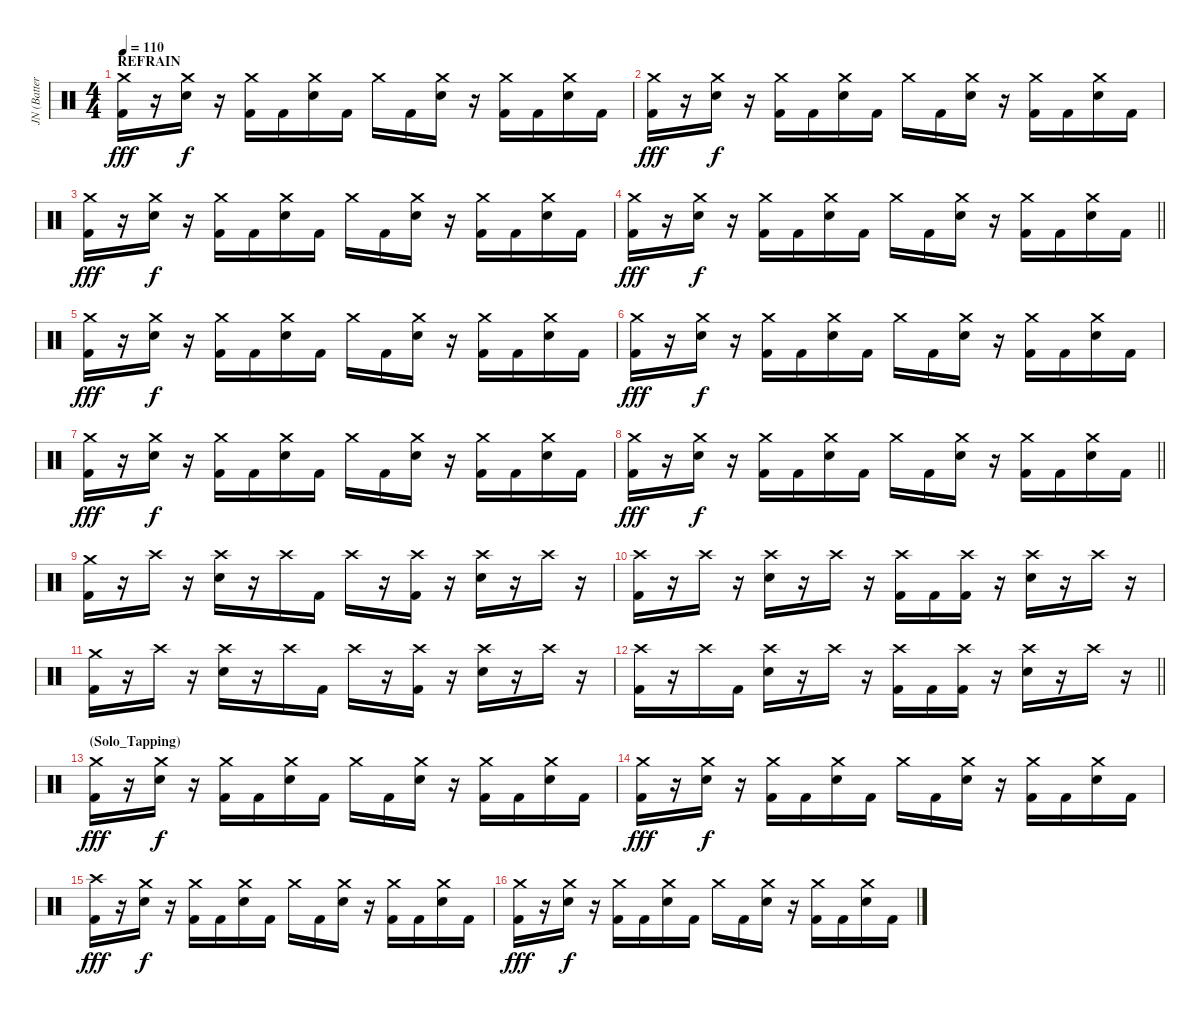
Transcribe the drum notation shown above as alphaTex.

\track ("JN (Batterie)" "JN (Batter") {instrument percussion}
\staff {score}
\articulation defaults
\ts (4 4)
\section ("" "REFRAIN")
\tempo 110
\clef neutral
\ks c
("Crash medium (hit)" "Kick (hit) 2").16{dy fff} r.16 ("Crash medium (hit)" "Electric Snare (hit)").16{dy f} r.16 ("Crash medium (hit)" "Kick (hit) 2").16 "Kick (hit) 2".16 ("Crash medium (hit)" "Electric Snare (hit)").16 "Kick (hit) 2".16 "Crash medium (hit)".16 "Kick (hit) 2".16 ("Crash medium (hit)" "Electric Snare (hit)").16 r.16 ("Crash medium (hit)" "Kick (hit) 2").16 "Kick (hit) 2".16 ("Crash medium (hit)" "Electric Snare (hit)").16 "Kick (hit) 2".16 |
("Crash medium (hit)" "Kick (hit) 2").16{dy fff} r.16 ("Crash medium (hit)" "Electric Snare (hit)").16{dy f} r.16 ("Crash medium (hit)" "Kick (hit) 2").16 "Kick (hit) 2".16 ("Crash medium (hit)" "Electric Snare (hit)").16 "Kick (hit) 2".16 "Crash medium (hit)".16 "Kick (hit) 2".16 ("Crash medium (hit)" "Electric Snare (hit)").16 r.16 ("Crash medium (hit)" "Kick (hit) 2").16 "Kick (hit) 2".16 ("Crash medium (hit)" "Electric Snare (hit)").16 "Kick (hit) 2".16 |
("Crash medium (hit)" "Kick (hit) 2").16{dy fff} r.16 ("Crash medium (hit)" "Electric Snare (hit)").16{dy f} r.16 ("Crash medium (hit)" "Kick (hit) 2").16 "Kick (hit) 2".16 ("Crash medium (hit)" "Electric Snare (hit)").16 "Kick (hit) 2".16 "Crash medium (hit)".16 "Kick (hit) 2".16 ("Crash medium (hit)" "Electric Snare (hit)").16 r.16 ("Crash medium (hit)" "Kick (hit) 2").16 "Kick (hit) 2".16 ("Crash medium (hit)" "Electric Snare (hit)").16 "Kick (hit) 2".16 |
\barLineRight lightlight
("Crash medium (hit)" "Kick (hit) 2").16{dy fff} r.16 ("Crash medium (hit)" "Electric Snare (hit)").16{dy f} r.16 ("Crash medium (hit)" "Kick (hit) 2").16 "Kick (hit) 2".16 ("Crash medium (hit)" "Electric Snare (hit)").16 "Kick (hit) 2".16 "Crash medium (hit)".16 "Kick (hit) 2".16 ("Crash medium (hit)" "Electric Snare (hit)").16 r.16 ("Crash medium (hit)" "Kick (hit) 2").16 "Kick (hit) 2".16 ("Crash medium (hit)" "Electric Snare (hit)").16 "Kick (hit) 2".16 |
("Crash medium (hit)" "Kick (hit) 2").16{dy fff} r.16 ("Crash medium (hit)" "Electric Snare (hit)").16{dy f} r.16 ("Crash medium (hit)" "Kick (hit) 2").16 "Kick (hit) 2".16 ("Crash medium (hit)" "Electric Snare (hit)").16 "Kick (hit) 2".16 "Crash medium (hit)".16 "Kick (hit) 2".16 ("Crash medium (hit)" "Electric Snare (hit)").16 r.16 ("Crash medium (hit)" "Kick (hit) 2").16 "Kick (hit) 2".16 ("Crash medium (hit)" "Electric Snare (hit)").16 "Kick (hit) 2".16 |
("Crash medium (hit)" "Kick (hit) 2").16{dy fff} r.16 ("Crash medium (hit)" "Electric Snare (hit)").16{dy f} r.16 ("Crash medium (hit)" "Kick (hit) 2").16 "Kick (hit) 2".16 ("Crash medium (hit)" "Electric Snare (hit)").16 "Kick (hit) 2".16 "Crash medium (hit)".16 "Kick (hit) 2".16 ("Crash medium (hit)" "Electric Snare (hit)").16 r.16 ("Crash medium (hit)" "Kick (hit) 2").16 "Kick (hit) 2".16 ("Crash medium (hit)" "Electric Snare (hit)").16 "Kick (hit) 2".16 |
("Crash medium (hit)" "Kick (hit) 2").16{dy fff} r.16 ("Crash medium (hit)" "Electric Snare (hit)").16{dy f} r.16 ("Crash medium (hit)" "Kick (hit) 2").16 "Kick (hit) 2".16 ("Crash medium (hit)" "Electric Snare (hit)").16 "Kick (hit) 2".16 "Crash medium (hit)".16 "Kick (hit) 2".16 ("Crash medium (hit)" "Electric Snare (hit)").16 r.16 ("Crash medium (hit)" "Kick (hit) 2").16 "Kick (hit) 2".16 ("Crash medium (hit)" "Electric Snare (hit)").16 "Kick (hit) 2".16 |
\barLineRight lightlight
("Crash medium (hit)" "Kick (hit) 2").16{dy fff} r.16 ("Crash medium (hit)" "Electric Snare (hit)").16{dy f} r.16 ("Crash medium (hit)" "Kick (hit) 2").16 "Kick (hit) 2".16 ("Crash medium (hit)" "Electric Snare (hit)").16 "Kick (hit) 2".16 "Crash medium (hit)".16 "Kick (hit) 2".16 ("Crash medium (hit)" "Electric Snare (hit)").16 r.16 ("Crash medium (hit)" "Kick (hit) 2").16 "Kick (hit) 2".16 ("Crash medium (hit)" "Electric Snare (hit)").16 "Kick (hit) 2".16 |
("Crash medium (hit)" "Kick (hit) 2").16 r.16 "Crash high (hit)".16 r.16 ("Crash high (hit)" "Electric Snare (hit)").16 r.16 "Crash high (hit)".16 "Kick (hit) 2".16 "Crash high (hit)".16 r.16 ("Crash high (hit)" "Kick (hit) 2").16 r.16 ("Crash high (hit)" "Electric Snare (hit)").16 r.16 "Crash high (hit)".16 r.16 |
("Crash high (hit)" "Kick (hit) 2").16 r.16 "Crash high (hit)".16 r.16 ("Crash high (hit)" "Electric Snare (hit)").16 r.16 "Crash high (hit)".16 r.16 ("Crash high (hit)" "Kick (hit) 2").16 "Kick (hit) 2".16 ("Crash high (hit)" "Kick (hit) 2").16 r.16 ("Crash high (hit)" "Electric Snare (hit)").16 r.16 "Crash high (hit)".16 r.16 |
("Crash medium (hit)" "Kick (hit) 2").16 r.16 "Crash high (hit)".16 r.16 ("Crash high (hit)" "Electric Snare (hit)").16 r.16 "Crash high (hit)".16 "Kick (hit) 2".16 "Crash high (hit)".16 r.16 ("Crash high (hit)" "Kick (hit) 2").16 r.16 ("Crash high (hit)" "Electric Snare (hit)").16 r.16 "Crash high (hit)".16 r.16 |
\barLineRight lightlight
("Crash high (hit)" "Kick (hit) 2").16 r.16 "Crash high (hit)".16 "Kick (hit) 2".16 ("Crash high (hit)" "Electric Snare (hit)").16 r.16 "Crash high (hit)".16 r.16 ("Crash high (hit)" "Kick (hit) 2").16 "Kick (hit) 2".16 ("Crash high (hit)" "Kick (hit) 2").16 r.16 ("Crash high (hit)" "Electric Snare (hit)").16 r.16 "Crash high (hit)".16 r.16 |
\section ("" "(Solo_Tapping)")
("Crash medium (hit)" "Kick (hit) 2").16{dy fff} r.16 ("Crash medium (hit)" "Electric Snare (hit)").16{dy f} r.16 ("Crash medium (hit)" "Kick (hit) 2").16 "Kick (hit) 2".16 ("Crash medium (hit)" "Electric Snare (hit)").16 "Kick (hit) 2".16 "Crash medium (hit)".16 "Kick (hit) 2".16 ("Crash medium (hit)" "Electric Snare (hit)").16 r.16 ("Crash medium (hit)" "Kick (hit) 2").16 "Kick (hit) 2".16 ("Crash medium (hit)" "Electric Snare (hit)").16 "Kick (hit) 2".16 |
("Crash medium (hit)" "Kick (hit) 2").16{dy fff} r.16 ("Crash medium (hit)" "Electric Snare (hit)").16{dy f} r.16 ("Crash medium (hit)" "Kick (hit) 2").16 "Kick (hit) 2".16 ("Crash medium (hit)" "Electric Snare (hit)").16 "Kick (hit) 2".16 "Crash medium (hit)".16 "Kick (hit) 2".16 ("Crash medium (hit)" "Electric Snare (hit)").16 r.16 ("Crash medium (hit)" "Kick (hit) 2").16 "Kick (hit) 2".16 ("Crash medium (hit)" "Electric Snare (hit)").16 "Kick (hit) 2".16 |
("Crash high (hit)" "Kick (hit) 2").16{dy fff} r.16 ("Crash medium (hit)" "Electric Snare (hit)").16{dy f} r.16 ("Crash medium (hit)" "Kick (hit) 2").16 "Kick (hit) 2".16 ("Crash medium (hit)" "Electric Snare (hit)").16 "Kick (hit) 2".16 "Crash medium (hit)".16 "Kick (hit) 2".16 ("Crash medium (hit)" "Electric Snare (hit)").16 r.16 ("Crash medium (hit)" "Kick (hit) 2").16 "Kick (hit) 2".16 ("Crash medium (hit)" "Electric Snare (hit)").16 "Kick (hit) 2".16 |
("Crash medium (hit)" "Kick (hit) 2").16{dy fff} r.16 ("Crash medium (hit)" "Electric Snare (hit)").16{dy f} r.16 ("Crash medium (hit)" "Kick (hit) 2").16 "Kick (hit) 2".16 ("Crash medium (hit)" "Electric Snare (hit)").16 "Kick (hit) 2".16 "Crash medium (hit)".16 "Kick (hit) 2".16 ("Crash medium (hit)" "Electric Snare (hit)").16 r.16 ("Crash medium (hit)" "Kick (hit) 2").16 "Kick (hit) 2".16 ("Crash medium (hit)" "Electric Snare (hit)").16 "Kick (hit) 2".16
